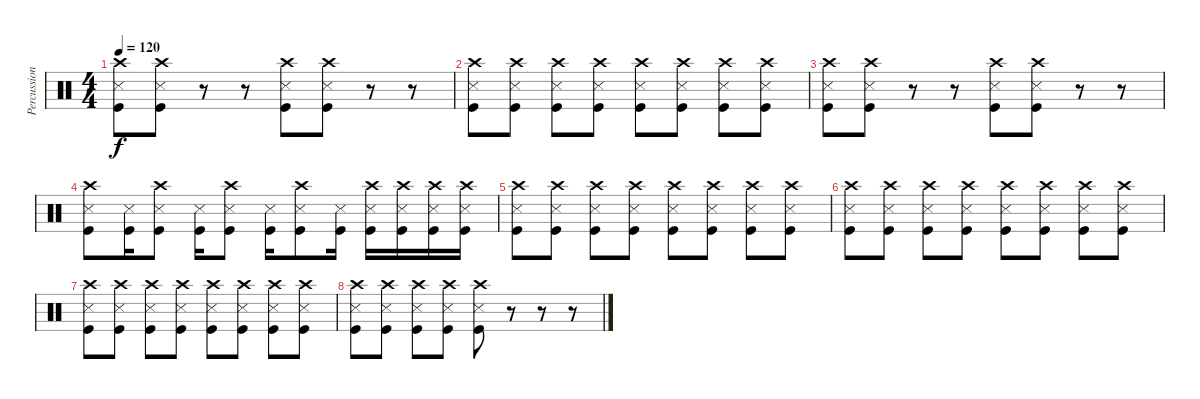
\track ("Percussion" "Percussion") {instrument percussion}
\staff {score}
\articulation defaults
\ts (4 4)
\tempo 120
\clef neutral
\ks c
("Crash high (hit)" "Snare (side stick) 3" "Kick (hit)").8{dy f} ("Crash high (hit)" "Snare (side stick) 3" "Kick (hit)").8 r.8 r.8 ("Crash high (hit)" "Snare (side stick) 3" "Kick (hit)").8 ("Crash high (hit)" "Snare (side stick) 3" "Kick (hit)").8 r.8 r.8 |
("Crash high (hit)" "Snare (side stick) 3" "Kick (hit)").8 ("Crash high (hit)" "Snare (side stick) 3" "Kick (hit)").8 ("Crash high (hit)" "Snare (side stick) 3" "Kick (hit)").8 ("Crash high (hit)" "Snare (side stick) 3" "Kick (hit)").8 ("Crash high (hit)" "Snare (side stick) 3" "Kick (hit)").8 ("Crash high (hit)" "Snare (side stick) 3" "Kick (hit)").8 ("Crash high (hit)" "Snare (side stick) 3" "Kick (hit)").8 ("Crash high (hit)" "Snare (side stick) 3" "Kick (hit)").8 |
("Crash high (hit)" "Snare (side stick) 3" "Kick (hit)").8 ("Crash high (hit)" "Snare (side stick) 3" "Kick (hit)").8 r.8 r.8 ("Crash high (hit)" "Snare (side stick) 3" "Kick (hit)").8 ("Crash high (hit)" "Snare (side stick) 3" "Kick (hit)").8 r.8 r.8 |
("Crash high (hit)" "Snare (side stick) 3" "Kick (hit)").8 ("Snare (side stick) 3" "Kick (hit)").16 ("Crash high (hit)" "Snare (side stick) 3" "Kick (hit)").8 ("Snare (side stick) 3" "Kick (hit)").16 ("Crash high (hit)" "Snare (side stick) 3" "Kick (hit)").8 ("Snare (side stick) 3" "Kick (hit)").16 ("Crash high (hit)" "Snare (side stick) 3" "Kick (hit)").8 ("Snare (side stick) 3" "Kick (hit)").16 ("Crash high (hit)" "Snare (side stick) 3" "Kick (hit)").16 ("Crash high (hit)" "Snare (side stick) 3" "Kick (hit)").16 ("Crash high (hit)" "Snare (side stick) 3" "Kick (hit)").16 ("Crash high (hit)" "Snare (side stick) 3" "Kick (hit)").16 |
("Crash high (hit)" "Snare (side stick) 3" "Kick (hit)").8 ("Crash high (hit)" "Snare (side stick) 3" "Kick (hit)").8 ("Crash high (hit)" "Snare (side stick) 3" "Kick (hit)").8 ("Crash high (hit)" "Snare (side stick) 3" "Kick (hit)").8 ("Crash high (hit)" "Snare (side stick) 3" "Kick (hit)").8 ("Crash high (hit)" "Snare (side stick) 3" "Kick (hit)").8 ("Crash high (hit)" "Snare (side stick) 3" "Kick (hit)").8 ("Crash high (hit)" "Snare (side stick) 3" "Kick (hit)").8 |
("Crash high (hit)" "Snare (side stick) 3" "Kick (hit)").8 ("Crash high (hit)" "Snare (side stick) 3" "Kick (hit)").8 ("Crash high (hit)" "Snare (side stick) 3" "Kick (hit)").8 ("Crash high (hit)" "Snare (side stick) 3" "Kick (hit)").8 ("Crash high (hit)" "Snare (side stick) 3" "Kick (hit)").8 ("Crash high (hit)" "Snare (side stick) 3" "Kick (hit)").8 ("Crash high (hit)" "Snare (side stick) 3" "Kick (hit)").8 ("Crash high (hit)" "Snare (side stick) 3" "Kick (hit)").8 |
("Crash high (hit)" "Snare (side stick) 3" "Kick (hit)").8 ("Crash high (hit)" "Snare (side stick) 3" "Kick (hit)").8 ("Crash high (hit)" "Snare (side stick) 3" "Kick (hit)").8 ("Crash high (hit)" "Snare (side stick) 3" "Kick (hit)").8 ("Crash high (hit)" "Snare (side stick) 3" "Kick (hit)").8 ("Crash high (hit)" "Snare (side stick) 3" "Kick (hit)").8 ("Crash high (hit)" "Snare (side stick) 3" "Kick (hit)").8 ("Crash high (hit)" "Snare (side stick) 3" "Kick (hit)").8 |
("Crash high (hit)" "Snare (side stick) 3" "Kick (hit)").8 ("Crash high (hit)" "Snare (side stick) 3" "Kick (hit)").8 ("Crash high (hit)" "Snare (side stick) 3" "Kick (hit)").8 ("Crash high (hit)" "Snare (side stick) 3" "Kick (hit)").8 ("Crash high (hit)" "Snare (side stick) 3" "Kick (hit)").8 r.8 r.8 r.8
